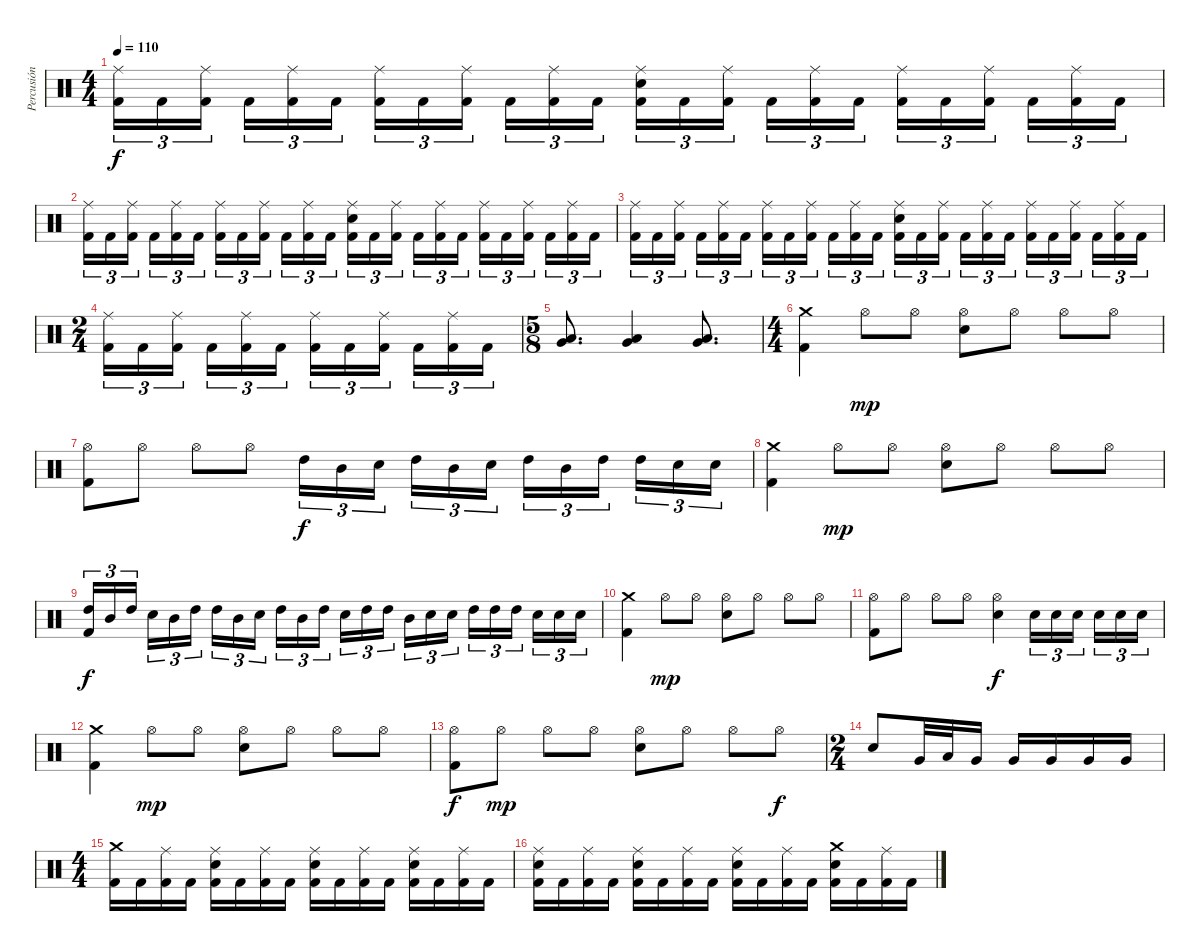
\track ("Percusión" "Percusión") {instrument percussion}
\staff {score}
\articulation defaults
\ts (4 4)
\tempo 110
\clef neutral
\ks c
("Ride (middle)" "Kick (hit) 2").16{tu (3 2) dy f} "Kick (hit) 2".16{tu (3 2)} ("Ride (middle)" "Kick (hit) 2").16{tu (3 2) beam splitsecondary} "Kick (hit) 2".16{tu (3 2)} ("Ride (middle)" "Kick (hit) 2").16{tu (3 2)} "Kick (hit) 2".16{tu (3 2)} ("Ride (middle)" "Kick (hit) 2").16{tu (3 2)} "Kick (hit) 2".16{tu (3 2)} ("Ride (middle)" "Kick (hit) 2").16{tu (3 2) beam splitsecondary} "Kick (hit) 2".16{tu (3 2)} ("Ride (middle)" "Kick (hit) 2").16{tu (3 2)} "Kick (hit) 2".16{tu (3 2)} ("Electric Snare (hit)" "Ride (middle)" "Kick (hit) 2").16{tu (3 2)} "Kick (hit) 2".16{tu (3 2)} ("Ride (middle)" "Kick (hit) 2").16{tu (3 2) beam splitsecondary} "Kick (hit) 2".16{tu (3 2)} ("Ride (middle)" "Kick (hit) 2").16{tu (3 2)} "Kick (hit) 2".16{tu (3 2)} ("Ride (middle)" "Kick (hit) 2").16{tu (3 2)} "Kick (hit) 2".16{tu (3 2)} ("Ride (middle)" "Kick (hit) 2").16{tu (3 2) beam splitsecondary} "Kick (hit) 2".16{tu (3 2)} ("Ride (middle)" "Kick (hit) 2").16{tu (3 2)} "Kick (hit) 2".16{tu (3 2)} |
("Ride (middle)" "Kick (hit) 2").16{tu (3 2)} "Kick (hit) 2".16{tu (3 2)} ("Ride (middle)" "Kick (hit) 2").16{tu (3 2) beam splitsecondary} "Kick (hit) 2".16{tu (3 2)} ("Ride (middle)" "Kick (hit) 2").16{tu (3 2)} "Kick (hit) 2".16{tu (3 2)} ("Ride (middle)" "Kick (hit) 2").16{tu (3 2)} "Kick (hit) 2".16{tu (3 2)} ("Ride (middle)" "Kick (hit) 2").16{tu (3 2) beam splitsecondary} "Kick (hit) 2".16{tu (3 2)} ("Ride (middle)" "Kick (hit) 2").16{tu (3 2)} "Kick (hit) 2".16{tu (3 2)} ("Electric Snare (hit)" "Ride (middle)" "Kick (hit) 2").16{tu (3 2)} "Kick (hit) 2".16{tu (3 2)} ("Ride (middle)" "Kick (hit) 2").16{tu (3 2) beam splitsecondary} "Kick (hit) 2".16{tu (3 2)} ("Ride (middle)" "Kick (hit) 2").16{tu (3 2)} "Kick (hit) 2".16{tu (3 2)} ("Ride (middle)" "Kick (hit) 2").16{tu (3 2)} "Kick (hit) 2".16{tu (3 2)} ("Ride (middle)" "Kick (hit) 2").16{tu (3 2) beam splitsecondary} "Kick (hit) 2".16{tu (3 2)} ("Ride (middle)" "Kick (hit) 2").16{tu (3 2)} "Kick (hit) 2".16{tu (3 2)} |
("Ride (middle)" "Kick (hit) 2").16{tu (3 2)} "Kick (hit) 2".16{tu (3 2)} ("Ride (middle)" "Kick (hit) 2").16{tu (3 2) beam splitsecondary} "Kick (hit) 2".16{tu (3 2)} ("Ride (middle)" "Kick (hit) 2").16{tu (3 2)} "Kick (hit) 2".16{tu (3 2)} ("Ride (middle)" "Kick (hit) 2").16{tu (3 2)} "Kick (hit) 2".16{tu (3 2)} ("Ride (middle)" "Kick (hit) 2").16{tu (3 2) beam splitsecondary} "Kick (hit) 2".16{tu (3 2)} ("Ride (middle)" "Kick (hit) 2").16{tu (3 2)} "Kick (hit) 2".16{tu (3 2)} ("Electric Snare (hit)" "Ride (middle)" "Kick (hit) 2").16{tu (3 2)} "Kick (hit) 2".16{tu (3 2)} ("Ride (middle)" "Kick (hit) 2").16{tu (3 2) beam splitsecondary} "Kick (hit) 2".16{tu (3 2)} ("Ride (middle)" "Kick (hit) 2").16{tu (3 2)} "Kick (hit) 2".16{tu (3 2)} ("Ride (middle)" "Kick (hit) 2").16{tu (3 2)} "Kick (hit) 2".16{tu (3 2)} ("Ride (middle)" "Kick (hit) 2").16{tu (3 2) beam splitsecondary} "Kick (hit) 2".16{tu (3 2)} ("Ride (middle)" "Kick (hit) 2").16{tu (3 2)} "Kick (hit) 2".16{tu (3 2)} |
\ts (2 4)
("Ride (middle)" "Kick (hit) 2").16{tu (3 2)} "Kick (hit) 2".16{tu (3 2)} ("Ride (middle)" "Kick (hit) 2").16{tu (3 2) beam splitsecondary} "Kick (hit) 2".16{tu (3 2)} ("Ride (middle)" "Kick (hit) 2").16{tu (3 2)} "Kick (hit) 2".16{tu (3 2)} ("Ride (middle)" "Kick (hit) 2").16{tu (3 2)} "Kick (hit) 2".16{tu (3 2)} ("Ride (middle)" "Kick (hit) 2").16{tu (3 2) beam splitsecondary} "Kick (hit) 2".16{tu (3 2)} ("Ride (middle)" "Kick (hit) 2").16{tu (3 2)} "Kick (hit) 2".16{tu (3 2)} |
\ts (5 8)
("Very Low Tom (hit)" "Low Tom (hit)").8{d} ("Very Low Tom (hit)" "Low Tom (hit)").4 ("Low Tom (hit)" "Very Low Tom (hit)").8{d} |
\ts (4 4)
("Kick (hit) 2" "Crash medium (hit)").4 "Hi-Hat (open)".8{dy mp} "Hi-Hat (open)".8 ("Electric Snare (hit)" "Hi-Hat (open)").8 "Hi-Hat (open)".8 "Hi-Hat (open)".8 "Hi-Hat (open)".8 |
("Kick (hit) 2" "Hi-Hat (open)").8 "Hi-Hat (open)".8 "Hi-Hat (open)".8 "Hi-Hat (open)".8 "High Tom (hit)".16{tu (3 2) dy f} "Mid Tom (hit)".16{tu (3 2)} "Electric Snare (hit)".16{tu (3 2) beam splitsecondary} "High Tom (hit)".16{tu (3 2)} "Mid Tom (hit)".16{tu (3 2)} "Electric Snare (hit)".16{tu (3 2)} "High Tom (hit)".16{tu (3 2)} "Mid Tom (hit)".16{tu (3 2)} "High Tom (hit)".16{tu (3 2) beam splitsecondary} "High Tom (hit)".16{tu (3 2)} "Electric Snare (hit)".16{tu (3 2)} "Electric Snare (hit)".16{tu (3 2)} |
("Kick (hit) 2" "Crash medium (hit)").4 "Hi-Hat (open)".8{dy mp} "Hi-Hat (open)".8 ("Electric Snare (hit)" "Hi-Hat (open)").8 "Hi-Hat (open)".8 "Hi-Hat (open)".8 "Hi-Hat (open)".8 |
("Kick (hit) 2" "High Tom (hit)").16{tu (3 2) dy f} "Mid Tom (hit)".16{tu (3 2)} "High Tom (hit)".16{tu (3 2) beam splitsecondary} "Electric Snare (hit)".16{tu (3 2)} "Mid Tom (hit)".16{tu (3 2)} "High Tom (hit)".16{tu (3 2)} "High Tom (hit)".16{tu (3 2)} "Mid Tom (hit)".16{tu (3 2)} "Electric Snare (hit)".16{tu (3 2) beam splitsecondary} "High Tom (hit)".16{tu (3 2)} "Mid Tom (hit)".16{tu (3 2)} "High Tom (hit)".16{tu (3 2)} "Electric Snare (hit)".16{tu (3 2)} "High Tom (hit)".16{tu (3 2)} "High Tom (hit)".16{tu (3 2) beam splitsecondary} "Mid Tom (hit)".16{tu (3 2)} "Electric Snare (hit)".16{tu (3 2)} "Electric Snare (hit)".16{tu (3 2)} "High Tom (hit)".16{tu (3 2)} "High Tom (hit)".16{tu (3 2)} "High Tom (hit)".16{tu (3 2) beam splitsecondary} "Electric Snare (hit)".16{tu (3 2)} "Electric Snare (hit)".16{tu (3 2)} "Electric Snare (hit)".16{tu (3 2)} |
("Kick (hit) 2" "Crash medium (hit)").4 "Hi-Hat (open)".8{dy mp} "Hi-Hat (open)".8 ("Electric Snare (hit)" "Hi-Hat (open)").8 "Hi-Hat (open)".8 "Hi-Hat (open)".8 "Hi-Hat (open)".8 |
("Kick (hit) 2" "Hi-Hat (open)").8 "Hi-Hat (open)".8 "Hi-Hat (open)".8 "Hi-Hat (open)".8 ("Electric Snare (hit)" "Hi-Hat (open)").4{dy f} "Electric Snare (hit)".16{tu (3 2)} "Electric Snare (hit)".16{tu (3 2)} "Electric Snare (hit)".16{tu (3 2) beam splitsecondary} "Electric Snare (hit)".16{tu (3 2)} "Electric Snare (hit)".16{tu (3 2)} "Electric Snare (hit)".16{tu (3 2)} |
("Kick (hit) 2" "Crash medium (hit)").4 "Hi-Hat (open)".8{dy mp} "Hi-Hat (open)".8 ("Electric Snare (hit)" "Hi-Hat (open)").8 "Hi-Hat (open)".8 "Hi-Hat (open)".8 "Hi-Hat (open)".8 |
("Kick (hit) 2" "Hi-Hat (open)").8{dy f} "Hi-Hat (open)".8{dy mp} "Hi-Hat (open)".8 "Hi-Hat (open)".8 ("Electric Snare (hit)" "Hi-Hat (open)").8 "Hi-Hat (open)".8 "Hi-Hat (open)".8 "Hi-Hat (open)".8{dy f} |
\ts (2 4)
"Electric Snare (hit)".8 "Very Low Tom (hit)".32 "Low Tom (hit)".32 "Very Low Tom (hit)".16 "Very Low Tom (hit)".16 "Very Low Tom (hit)".16 "Very Low Tom (hit)".16 "Very Low Tom (hit)".16 |
\ts (4 4)
("Crash medium (hit)" "Kick (hit) 2").16 "Kick (hit) 2".16 ("Ride (middle)" "Kick (hit) 2").16 "Kick (hit) 2".16 ("Electric Snare (hit)" "Ride (middle)" "Kick (hit) 2").16 "Kick (hit) 2".16 ("Ride (middle)" "Kick (hit) 2").16 "Kick (hit) 2".16 ("Electric Snare (hit)" "Ride (middle)" "Kick (hit) 2").16 "Kick (hit) 2".16 ("Ride (middle)" "Kick (hit) 2").16 "Kick (hit) 2".16 ("Electric Snare (hit)" "Ride (middle)" "Kick (hit) 2").16 "Kick (hit) 2".16 ("Ride (middle)" "Kick (hit) 2").16 "Kick (hit) 2".16 |
("Electric Snare (hit)" "Ride (middle)" "Kick (hit) 2").16 "Kick (hit) 2".16 ("Ride (middle)" "Kick (hit) 2").16 "Kick (hit) 2".16 ("Electric Snare (hit)" "Ride (middle)" "Kick (hit) 2").16 "Kick (hit) 2".16 ("Ride (middle)" "Kick (hit) 2").16 "Kick (hit) 2".16 ("Electric Snare (hit)" "Ride (middle)" "Kick (hit) 2").16 "Kick (hit) 2".16 ("Ride (middle)" "Kick (hit) 2").16 "Kick (hit) 2".16 ("Electric Snare (hit)" "Crash medium (hit)" "Kick (hit) 2").16 "Kick (hit) 2".16 ("Ride (middle)" "Kick (hit) 2").16 "Kick (hit) 2".16
